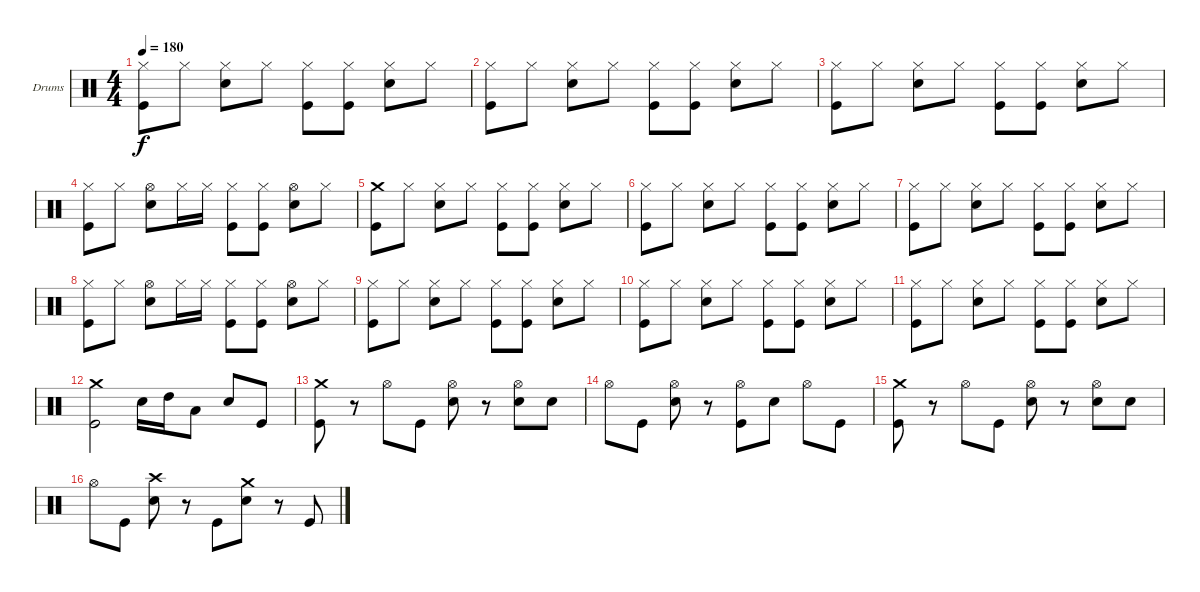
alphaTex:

\bracketExtendMode groupsimilarinstruments
\firstSystemTrackNameOrientation horizontal
\otherSystemsTrackNameOrientation horizontal
\track ("Drumkit" "Drums") {instrument percussion}
\staff {score}
\articulation defaults
\ts (4 4)
\tempo 180
\clef neutral
\ks c
("Hi-Hat (closed)" "Kick (hit)").8{dy f} "Hi-Hat (closed)".8 ("Hi-Hat (closed)" "Snare (hit) 2").8 "Hi-Hat (closed)".8 ("Hi-Hat (closed)" "Kick (hit)").8 ("Hi-Hat (closed)" "Kick (hit)").8 ("Hi-Hat (closed)" "Snare (hit) 2").8 "Hi-Hat (closed)".8 |
("Hi-Hat (closed)" "Kick (hit)").8 "Hi-Hat (closed)".8 ("Hi-Hat (closed)" "Snare (hit) 2").8 "Hi-Hat (closed)".8 ("Hi-Hat (closed)" "Kick (hit)").8 ("Hi-Hat (closed)" "Kick (hit)").8 ("Hi-Hat (closed)" "Snare (hit) 2").8 "Hi-Hat (closed)".8 |
("Hi-Hat (closed)" "Kick (hit)").8 "Hi-Hat (closed)".8 ("Hi-Hat (closed)" "Snare (hit) 2").8 "Hi-Hat (closed)".8 ("Hi-Hat (closed)" "Kick (hit)").8 ("Hi-Hat (closed)" "Kick (hit)").8 ("Hi-Hat (closed)" "Snare (hit) 2").8 "Hi-Hat (closed)".8 |
("Hi-Hat (closed)" "Kick (hit)").8 "Hi-Hat (closed)".8 ("Hi-Hat (open)" "Snare (hit) 2").8 "Hi-Hat (closed)".16 "Hi-Hat (closed)".16 ("Hi-Hat (closed)" "Kick (hit)").8 ("Hi-Hat (closed)" "Kick (hit)").8 ("Hi-Hat (open)" "Snare (hit) 2").8 "Hi-Hat (closed)".8 |
("Crash medium (hit)" "Kick (hit)").8 "Hi-Hat (closed)".8 ("Hi-Hat (closed)" "Snare (hit) 2").8 "Hi-Hat (closed)".8 ("Hi-Hat (closed)" "Kick (hit)").8 ("Hi-Hat (closed)" "Kick (hit)").8 ("Hi-Hat (closed)" "Snare (hit) 2").8 "Hi-Hat (closed)".8 |
("Hi-Hat (closed)" "Kick (hit)").8 "Hi-Hat (closed)".8 ("Hi-Hat (closed)" "Snare (hit) 2").8 "Hi-Hat (closed)".8 ("Hi-Hat (closed)" "Kick (hit)").8 ("Hi-Hat (closed)" "Kick (hit)").8 ("Hi-Hat (closed)" "Snare (hit) 2").8 "Hi-Hat (closed)".8 |
("Hi-Hat (closed)" "Kick (hit)").8 "Hi-Hat (closed)".8 ("Hi-Hat (closed)" "Snare (hit) 2").8 "Hi-Hat (closed)".8 ("Hi-Hat (closed)" "Kick (hit)").8 ("Hi-Hat (closed)" "Kick (hit)").8 ("Hi-Hat (closed)" "Snare (hit) 2").8 "Hi-Hat (closed)".8 |
("Hi-Hat (closed)" "Kick (hit)").8 "Hi-Hat (closed)".8 ("Hi-Hat (open)" "Snare (hit) 2").8 "Hi-Hat (closed)".16 "Hi-Hat (closed)".16 ("Hi-Hat (closed)" "Kick (hit)").8 ("Hi-Hat (closed)" "Kick (hit)").8 ("Hi-Hat (open)" "Snare (hit) 2").8 "Hi-Hat (closed)".8 |
("Hi-Hat (closed)" "Kick (hit)").8 "Hi-Hat (closed)".8 ("Hi-Hat (closed)" "Snare (hit) 2").8 "Hi-Hat (closed)".8 ("Hi-Hat (closed)" "Kick (hit)").8 ("Hi-Hat (closed)" "Kick (hit)").8 ("Hi-Hat (closed)" "Snare (hit) 2").8 "Hi-Hat (closed)".8 |
("Hi-Hat (closed)" "Kick (hit)").8 "Hi-Hat (closed)".8 ("Hi-Hat (closed)" "Snare (hit) 2").8 "Hi-Hat (closed)".8 ("Hi-Hat (closed)" "Kick (hit)").8 ("Hi-Hat (closed)" "Kick (hit)").8 ("Hi-Hat (closed)" "Snare (hit) 2").8 "Hi-Hat (closed)".8 |
("Hi-Hat (closed)" "Kick (hit)").8 "Hi-Hat (closed)".8 ("Hi-Hat (closed)" "Snare (hit) 2").8 "Hi-Hat (closed)".8 ("Hi-Hat (closed)" "Kick (hit)").8 ("Hi-Hat (closed)" "Kick (hit)").8 ("Hi-Hat (closed)" "Snare (hit) 2").8 "Hi-Hat (closed)".8 |
("Kick (hit)" "Crash medium (hit)").2 "Snare (hit) 2".16 "High Tom (hit)".16 "Low Tom (hit)".8 "Snare (hit) 2".8 "Kick (hit)".8 |
("Kick (hit)" "Crash medium (hit)").8 r.8 "Hi-Hat (open)".8 "Kick (hit)".8 ("Snare (hit) 2" "Hi-Hat (open)").8 r.8 ("Snare (hit) 2" "Hi-Hat (open)").8 "Snare (hit) 2".8 |
"Hi-Hat (open)".8 "Kick (hit)".8 ("Hi-Hat (open)" "Snare (hit) 2").8 r.8 ("Hi-Hat (open)" "Kick (hit)").8 "Snare (hit) 2".8 "Hi-Hat (open)".8 "Kick (hit)".8 |
("Kick (hit)" "Crash medium (hit)").8 r.8 "Hi-Hat (open)".8 "Kick (hit)".8 ("Snare (hit) 2" "Hi-Hat (open)").8 r.8 ("Snare (hit) 2" "Hi-Hat (open)").8 "Snare (hit) 2".8 |
"Hi-Hat (open)".8 "Kick (hit)".8 ("Crash high (hit)" "Snare (hit) 2").8 r.8 "Kick (hit)".8 ("Crash medium (hit)" "Snare (hit) 2").8 r.8 "Kick (hit)".8
